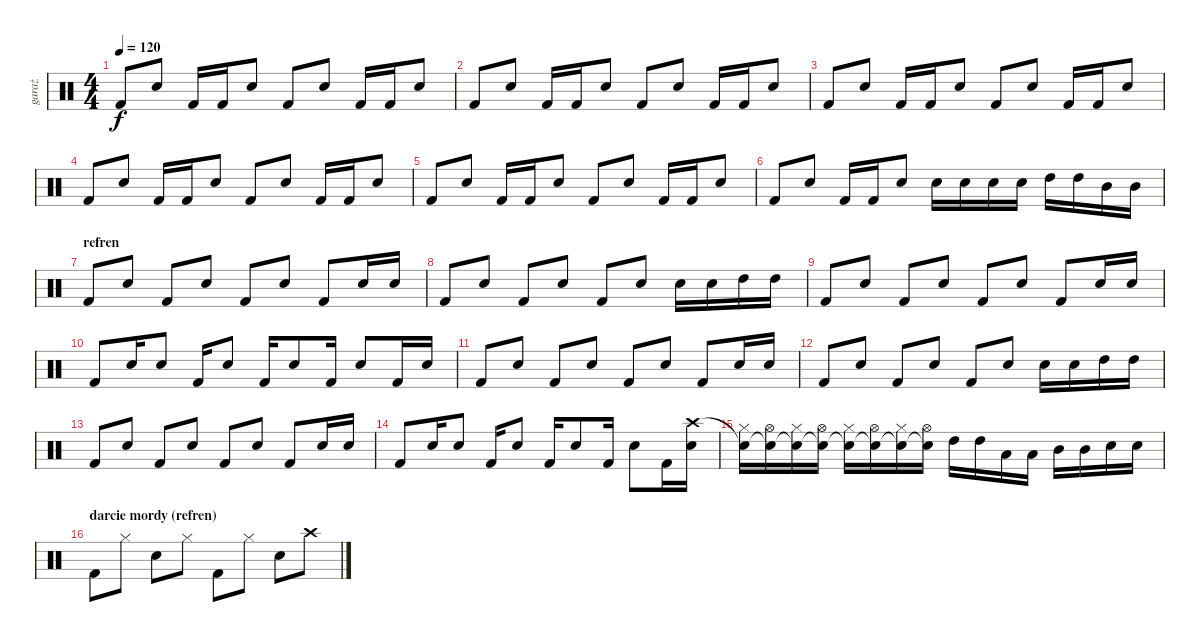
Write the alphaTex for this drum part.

\track ("garaż" "garaż") {instrument percussion}
\staff {score}
\articulation defaults
\ts (4 4)
\tempo 120
\clef neutral
\ks c "Kick (hit) 2".8{dy f} "Snare (hit) 2".8 "Kick (hit) 2".16 "Kick (hit) 2".16 "Snare (hit) 2".8 "Kick (hit) 2".8 "Snare (hit) 2".8 "Kick (hit) 2".16 "Kick (hit) 2".16 "Snare (hit) 2".8
|
"Kick (hit) 2".8 "Snare (hit) 2".8 "Kick (hit) 2".16 "Kick (hit) 2".16 "Snare (hit) 2".8 "Kick (hit) 2".8 "Snare (hit) 2".8 "Kick (hit) 2".16 "Kick (hit) 2".16 "Snare (hit) 2".8 |
"Kick (hit) 2".8 "Snare (hit) 2".8 "Kick (hit) 2".16 "Kick (hit) 2".16 "Snare (hit) 2".8 "Kick (hit) 2".8 "Snare (hit) 2".8 "Kick (hit) 2".16 "Kick (hit) 2".16 "Snare (hit) 2".8 |
"Kick (hit) 2".8 "Snare (hit) 2".8 "Kick (hit) 2".16 "Kick (hit) 2".16 "Snare (hit) 2".8 "Kick (hit) 2".8 "Snare (hit) 2".8 "Kick (hit) 2".16 "Kick (hit) 2".16 "Snare (hit) 2".8 |
"Kick (hit) 2".8 "Snare (hit) 2".8 "Kick (hit) 2".16 "Kick (hit) 2".16 "Snare (hit) 2".8 "Kick (hit) 2".8 "Snare (hit) 2".8 "Kick (hit) 2".16 "Kick (hit) 2".16 "Snare (hit) 2".8 |
"Kick (hit) 2".8 "Snare (hit) 2".8 "Kick (hit) 2".16 "Kick (hit) 2".16 "Snare (hit) 2".8 "Snare (hit) 2".16 "Snare (hit) 2".16 "Snare (hit) 2".16 "Snare (hit) 2".16 "High Tom (hit)".16 "High Tom (hit)".16 "Mid Tom (hit)".16 "Mid Tom (hit)".16 |
\section ("" "refren")
"Kick (hit) 2".8 "Snare (hit) 2".8 "Kick (hit) 2".8 "Snare (hit) 2".8 "Kick (hit) 2".8 "Snare (hit) 2".8 "Kick (hit) 2".8 "Snare (hit) 2".16 "Snare (hit) 2".16 |
"Kick (hit) 2".8 "Snare (hit) 2".8 "Kick (hit) 2".8 "Snare (hit) 2".8 "Kick (hit) 2".8 "Snare (hit) 2".8 "Snare (hit) 2".16 "Snare (hit) 2".16 "High Tom (hit)".16 "High Tom (hit)".16 |
"Kick (hit) 2".8 "Snare (hit) 2".8 "Kick (hit) 2".8 "Snare (hit) 2".8 "Kick (hit) 2".8 "Snare (hit) 2".8 "Kick (hit) 2".8 "Snare (hit) 2".16 "Snare (hit) 2".16 |
"Kick (hit) 2".8 "Snare (hit) 2".16 "Snare (hit) 2".8 "Kick (hit) 2".16 "Snare (hit) 2".8 "Kick (hit) 2".16 "Snare (hit) 2".8 "Kick (hit) 2".16 "Snare (hit) 2".8 "Kick (hit) 2".16 "Snare (hit) 2".16 |
"Kick (hit) 2".8 "Snare (hit) 2".8 "Kick (hit) 2".8 "Snare (hit) 2".8 "Kick (hit) 2".8 "Snare (hit) 2".8 "Kick (hit) 2".8 "Snare (hit) 2".16 "Snare (hit) 2".16 |
"Kick (hit) 2".8 "Snare (hit) 2".8 "Kick (hit) 2".8 "Snare (hit) 2".8 "Kick (hit) 2".8 "Snare (hit) 2".8 "Snare (hit) 2".16 "Snare (hit) 2".16 "High Tom (hit)".16 "High Tom (hit)".16 |
"Kick (hit) 2".8 "Snare (hit) 2".8 "Kick (hit) 2".8 "Snare (hit) 2".8 "Kick (hit) 2".8 "Snare (hit) 2".8 "Kick (hit) 2".8 "Snare (hit) 2".16 "Snare (hit) 2".16 |
"Kick (hit) 2".8 "Snare (hit) 2".16 "Snare (hit) 2".8 "Kick (hit) 2".16 "Snare (hit) 2".8 "Kick (hit) 2".16 "Snare (hit) 2".8 "Kick (hit) 2".16 "Snare (hit) 2".8 "Kick (hit) 2".16 ("Crash high (hit)" "Snare (hit) 2").16 |
("Snare (hit)"{t} "Hi-Hat (closed)").16 ("Snare (hit)"{t} "Hi-Hat (open)").16 ("Snare (hit)"{t} "Hi-Hat (closed)").16 ("Snare (hit)"{t} "Hi-Hat (open)").16 ("Snare (hit)"{t} "Hi-Hat (closed)").16 ("Snare (hit)"{t} "Hi-Hat (open)").16 ("Snare (hit)"{t} "Hi-Hat (closed)").16 ("Snare (hit)"{t} "Hi-Hat (open)").16 "High Tom (hit)".16 "High Tom (hit)".16 "Low Tom (hit)".16 "Low Tom (hit)".16 "Mid Tom (hit)".16 "Mid Tom (hit)".16 "Snare (hit) 2".16 "Snare (hit) 2".16 |
\section ("" "darcie mordy (refren)")
"Kick (hit) 2".8 "Hi-Hat (closed)".8 "Snare (hit) 2".8 "Hi-Hat (closed)".8 "Kick (hit) 2".8 "Hi-Hat (closed)".8 "Snare (hit) 2".8 "Crash high (hit)".8
